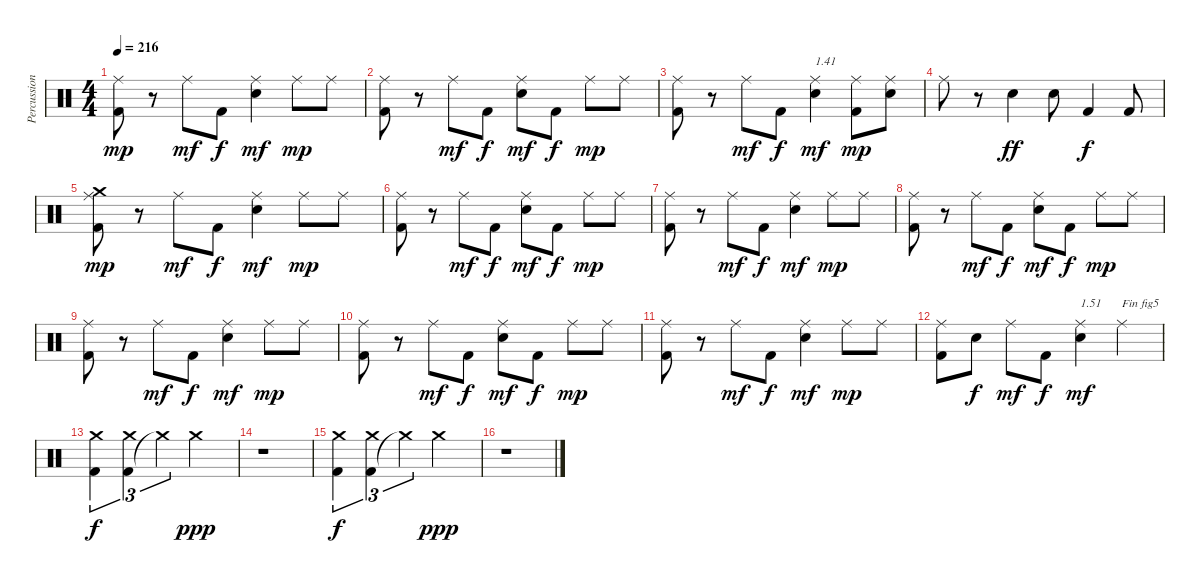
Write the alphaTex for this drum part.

\track ("Percussion" "Percussion") {instrument percussion}
\staff {score}
\articulation defaults
\ts (4 4)
\tempo 216
\clef neutral
\ks c
("Kick (hit) 2" "Ride (middle)").8{dy mp} r.8 "Ride (middle)".8{dy mf} "Kick (hit) 2".8{dy f} ("Electric Snare (hit)" "Ride (middle)").4{dy mf} "Ride (middle)".8{dy mp} "Ride (middle)".8 |
("Kick (hit) 2" "Ride (middle)").8 r.8 "Ride (middle)".8{dy mf} "Kick (hit) 2".8{dy f} ("Electric Snare (hit)" "Ride (middle)").8{dy mf} "Kick (hit) 2".8{dy f} "Ride (middle)".8{dy mp} "Ride (middle)".8 |
("Kick (hit) 2" "Ride (middle)").8 r.8 "Ride (middle)".8{dy mf} "Kick (hit) 2".8{dy f} ("Electric Snare (hit)" "Ride (middle)").4{txt "1.41" dy mf} ("Kick (hit) 2" "Ride (middle)").8{dy mp} ("Electric Snare (hit)" "Ride (middle)").8 |
"Ride (middle)".8 r.8 "Electric Snare (hit)".4{dy ff} "Electric Snare (hit)".8 "Kick (hit) 2".4{dy f} "Kick (hit) 2".8 |
("Kick (hit) 2" "Crash medium (hit)" "Ride (middle)").8{dy mp} r.8 "Ride (middle)".8{dy mf} "Kick (hit) 2".8{dy f} ("Electric Snare (hit)" "Ride (middle)").4{dy mf} "Ride (middle)".8{dy mp} "Ride (middle)".8 |
("Kick (hit) 2" "Ride (middle)").8 r.8 "Ride (middle)".8{dy mf} "Kick (hit) 2".8{dy f} ("Electric Snare (hit)" "Ride (middle)").8{dy mf} "Kick (hit) 2".8{dy f} "Ride (middle)".8{dy mp} "Ride (middle)".8 |
("Kick (hit) 2" "Ride (middle)").8 r.8 "Ride (middle)".8{dy mf} "Kick (hit) 2".8{dy f} ("Electric Snare (hit)" "Ride (middle)").4{dy mf} "Ride (middle)".8{dy mp} "Ride (middle)".8 |
("Kick (hit) 2" "Ride (middle)").8 r.8 "Ride (middle)".8{dy mf} "Kick (hit) 2".8{dy f} ("Electric Snare (hit)" "Ride (middle)").8{dy mf} "Kick (hit) 2".8{dy f} "Ride (middle)".8{dy mp} "Ride (middle)".8 |
("Kick (hit) 2" "Ride (middle)").8 r.8 "Ride (middle)".8{dy mf} "Kick (hit) 2".8{dy f} ("Electric Snare (hit)" "Ride (middle)").4{dy mf} "Ride (middle)".8{dy mp} "Ride (middle)".8 |
("Kick (hit) 2" "Ride (middle)").8 r.8 "Ride (middle)".8{dy mf} "Kick (hit) 2".8{dy f} ("Electric Snare (hit)" "Ride (middle)").8{dy mf} "Kick (hit) 2".8{dy f} "Ride (middle)".8{dy mp} "Ride (middle)".8 |
("Kick (hit) 2" "Ride (middle)").8 r.8 "Ride (middle)".8{dy mf} "Kick (hit) 2".8{dy f} ("Electric Snare (hit)" "Ride (middle)").4{dy mf} "Ride (middle)".8{dy mp} "Ride (middle)".8 |
("Kick (hit) 2" "Ride (middle)").8 "Electric Snare (hit)".8{dy f} "Ride (middle)".8{dy mf} "Kick (hit) 2".8{dy f} ("Electric Snare (hit)" "Ride (middle)").4{txt "1.51" dy mf} "Ride (middle)".4{txt "Fin fig5"} |
("Kick (hit) 2" "Crash medium (hit)").4{tu (3 2) dy f} ("Kick (hit) 2" "Crash medium (hit)").4{tu (3 2)} "Crash medium (hit)"{t}.4{tu (3 2)} "Crash medium (hit)".2{dy ppp} |
r.1 |
("Kick (hit) 2" "Crash medium (hit)").4{tu (3 2) dy f} ("Kick (hit) 2" "Crash medium (hit)").4{tu (3 2)} "Crash medium (hit)"{t}.4{tu (3 2)} "Crash medium (hit)".2{dy ppp} |
r.1
